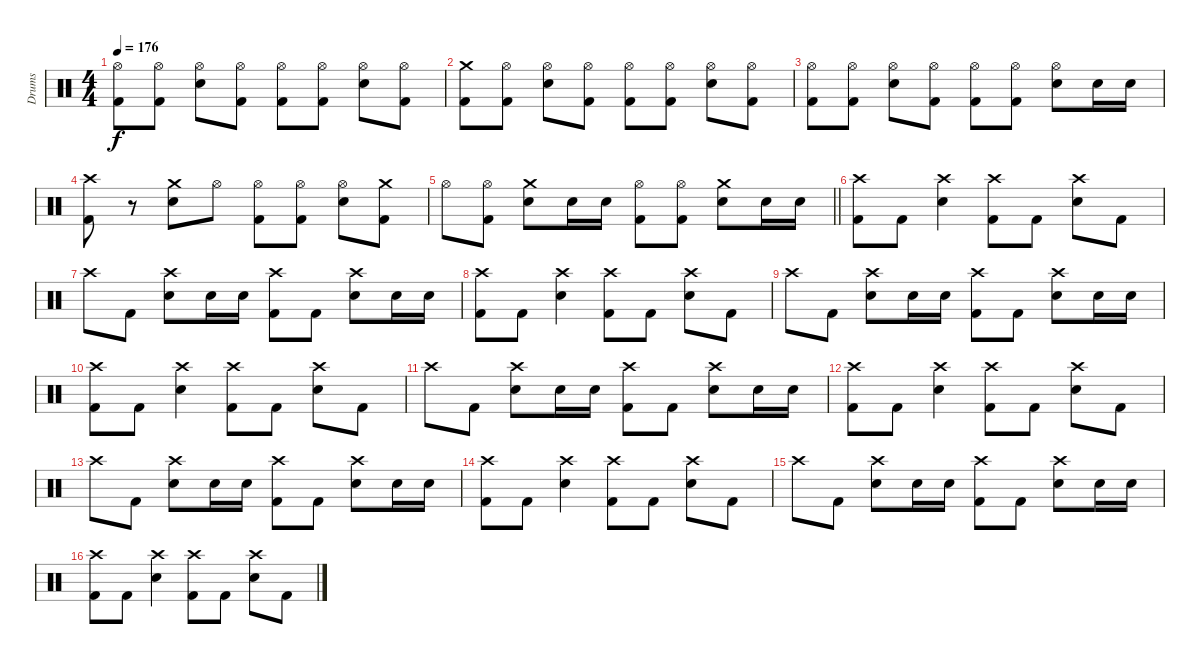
\track ("Drums" "Drums") {instrument percussion}
\staff {score}
\articulation defaults
\ts (4 4)
\tempo 176
\clef neutral
\ks c
("Hi-Hat (open)" "Kick (hit) 2").8{dy f} ("Hi-Hat (open)" "Kick (hit) 2").8 ("Hi-Hat (open)" "Electric Snare (hit)").8 ("Hi-Hat (open)" "Kick (hit) 2").8 ("Hi-Hat (open)" "Kick (hit) 2").8 ("Hi-Hat (open)" "Kick (hit) 2").8 ("Hi-Hat (open)" "Electric Snare (hit)").8 ("Hi-Hat (open)" "Kick (hit) 2").8 |
("Crash medium (hit)" "Kick (hit) 2").8 ("Hi-Hat (open)" "Kick (hit) 2").8 ("Hi-Hat (open)" "Electric Snare (hit)").8 ("Hi-Hat (open)" "Kick (hit) 2").8 ("Hi-Hat (open)" "Kick (hit) 2").8 ("Hi-Hat (open)" "Kick (hit) 2").8 ("Hi-Hat (open)" "Electric Snare (hit)").8 ("Hi-Hat (open)" "Kick (hit) 2").8 |
("Hi-Hat (open)" "Kick (hit) 2").8 ("Hi-Hat (open)" "Kick (hit) 2").8 ("Hi-Hat (open)" "Electric Snare (hit)").8 ("Hi-Hat (open)" "Kick (hit) 2").8 ("Hi-Hat (open)" "Kick (hit) 2").8 ("Hi-Hat (open)" "Kick (hit) 2").8 ("Hi-Hat (open)" "Electric Snare (hit)").8 "Electric Snare (hit)".16 "Electric Snare (hit)".16 |
("Crash high (hit)" "Kick (hit) 2").8 r.8 ("Crash medium (hit)" "Electric Snare (hit)").8 "Hi-Hat (open)".8 ("Hi-Hat (open)" "Kick (hit) 2").8 ("Hi-Hat (open)" "Kick (hit) 2").8 ("Hi-Hat (open)" "Electric Snare (hit)").8 ("Crash medium (hit)" "Kick (hit) 2").8 |
\barLineRight lightlight "Hi-Hat (open)".8
("Hi-Hat (open)" "Kick (hit) 2").8 ("Crash medium (hit)" "Electric Snare (hit)").8 "Electric Snare (hit)".16 "Electric Snare (hit)".16 ("Hi-Hat (open)" "Kick (hit) 2").8 ("Hi-Hat (open)" "Kick (hit) 2").8 ("Crash medium (hit)" "Electric Snare (hit)").8 "Electric Snare (hit)".16 "Electric Snare (hit)".16 |
("Crash high (hit)" "Kick (hit) 2").8 "Kick (hit) 2".8 ("Crash high (hit)" "Electric Snare (hit)").4 ("Crash high (hit)" "Kick (hit) 2").8 "Kick (hit) 2".8 ("Crash high (hit)" "Electric Snare (hit)").8 "Kick (hit) 2".8 |
"Crash high (hit)".8 "Kick (hit) 2".8 ("Crash high (hit)" "Electric Snare (hit)").8 "Electric Snare (hit)".16 "Electric Snare (hit)".16 ("Crash high (hit)" "Kick (hit) 2").8 "Kick (hit) 2".8 ("Crash high (hit)" "Electric Snare (hit)").8 "Electric Snare (hit)".16 "Electric Snare (hit)".16 |
("Crash high (hit)" "Kick (hit) 2").8 "Kick (hit) 2".8 ("Crash high (hit)" "Electric Snare (hit)").4 ("Crash high (hit)" "Kick (hit) 2").8 "Kick (hit) 2".8 ("Crash high (hit)" "Electric Snare (hit)").8 "Kick (hit) 2".8 |
"Crash high (hit)".8 "Kick (hit) 2".8 ("Crash high (hit)" "Electric Snare (hit)").8 "Electric Snare (hit)".16 "Electric Snare (hit)".16 ("Crash high (hit)" "Kick (hit) 2").8 "Kick (hit) 2".8 ("Crash high (hit)" "Electric Snare (hit)").8 "Electric Snare (hit)".16 "Electric Snare (hit)".16 |
("Crash high (hit)" "Kick (hit) 2").8 "Kick (hit) 2".8 ("Crash high (hit)" "Electric Snare (hit)").4 ("Crash high (hit)" "Kick (hit) 2").8 "Kick (hit) 2".8 ("Crash high (hit)" "Electric Snare (hit)").8 "Kick (hit) 2".8 |
"Crash high (hit)".8 "Kick (hit) 2".8 ("Crash high (hit)" "Electric Snare (hit)").8 "Electric Snare (hit)".16 "Electric Snare (hit)".16 ("Crash high (hit)" "Kick (hit) 2").8 "Kick (hit) 2".8 ("Crash high (hit)" "Electric Snare (hit)").8 "Electric Snare (hit)".16 "Electric Snare (hit)".16 |
("Crash high (hit)" "Kick (hit) 2").8 "Kick (hit) 2".8 ("Crash high (hit)" "Electric Snare (hit)").4 ("Crash high (hit)" "Kick (hit) 2").8 "Kick (hit) 2".8 ("Crash high (hit)" "Electric Snare (hit)").8 "Kick (hit) 2".8 |
"Crash high (hit)".8 "Kick (hit) 2".8 ("Crash high (hit)" "Electric Snare (hit)").8 "Electric Snare (hit)".16 "Electric Snare (hit)".16 ("Crash high (hit)" "Kick (hit) 2").8 "Kick (hit) 2".8 ("Crash high (hit)" "Electric Snare (hit)").8 "Electric Snare (hit)".16 "Electric Snare (hit)".16 |
("Crash high (hit)" "Kick (hit) 2").8 "Kick (hit) 2".8 ("Crash high (hit)" "Electric Snare (hit)").4 ("Crash high (hit)" "Kick (hit) 2").8 "Kick (hit) 2".8 ("Crash high (hit)" "Electric Snare (hit)").8 "Kick (hit) 2".8 |
"Crash high (hit)".8 "Kick (hit) 2".8 ("Crash high (hit)" "Electric Snare (hit)").8 "Electric Snare (hit)".16 "Electric Snare (hit)".16 ("Crash high (hit)" "Kick (hit) 2").8 "Kick (hit) 2".8 ("Crash high (hit)" "Electric Snare (hit)").8 "Electric Snare (hit)".16 "Electric Snare (hit)".16 |
("Crash high (hit)" "Kick (hit) 2").8 "Kick (hit) 2".8 ("Crash high (hit)" "Electric Snare (hit)").4 ("Crash high (hit)" "Kick (hit) 2").8 "Kick (hit) 2".8 ("Crash high (hit)" "Electric Snare (hit)").8 "Kick (hit) 2".8
